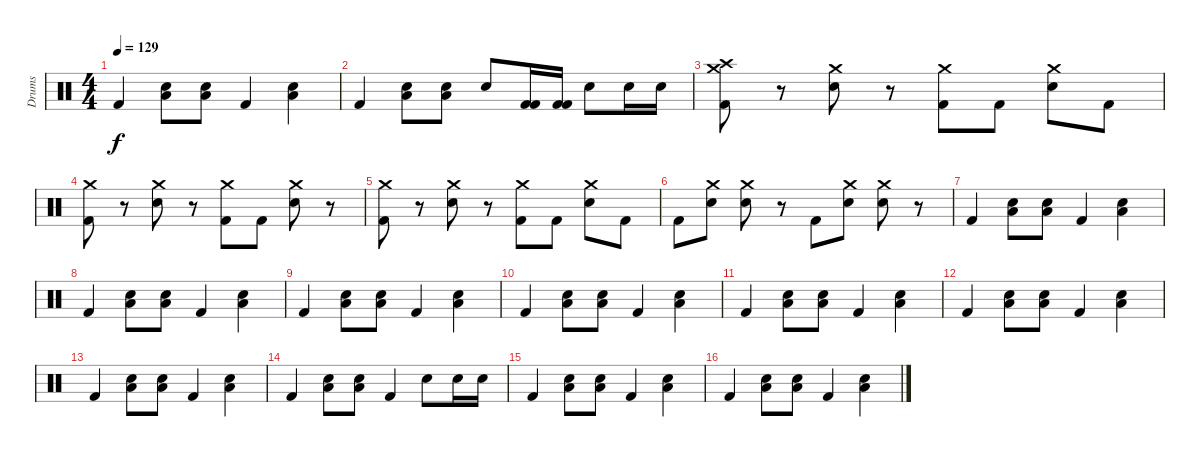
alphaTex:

\track ("Drums" "Drums") {instrument percussion}
\staff {score}
\articulation defaults
\ts (4 4)
\tempo 129
\clef neutral
\ks c "Kick (hit) 2".4{dy f}
("Snare (hit) 2" "Low Floor Tom (hit)").8 ("Snare (hit) 2" "Low Floor Tom (hit)").8 "Kick (hit) 2".4 ("Snare (hit) 2" "Low Floor Tom (hit)").4 |
"Kick (hit) 2".4 ("Snare (hit) 2" "Low Floor Tom (hit)").8 ("Snare (hit) 2" "Low Floor Tom (hit)").8 "Snare (hit) 2".8 ("Kick (hit) 2" "Kick (hit) 2").16 ("Kick (hit) 2" "Kick (hit) 2").16 "Snare (hit) 2".8 "Snare (hit) 2".16 "Snare (hit) 2".16 |
("Crash high (hit)" "Crash medium (hit)" "Kick (hit) 2").8 r.8 ("Crash medium (hit)" "Snare (hit) 2").8 r.8 ("Crash medium (hit)" "Kick (hit) 2").8 "Kick (hit) 2".8 ("Crash medium (hit)" "Snare (hit) 2").8 "Kick (hit) 2".8 |
("Crash medium (hit)" "Kick (hit) 2").8 r.8 ("Crash medium (hit)" "Snare (hit) 2").8 r.8 ("Crash medium (hit)" "Kick (hit) 2").8 "Kick (hit) 2".8 ("Crash medium (hit)" "Snare (hit) 2").8 r.8 |
("Crash medium (hit)" "Kick (hit) 2").8 r.8 ("Crash medium (hit)" "Snare (hit) 2").8 r.8 ("Crash medium (hit)" "Kick (hit) 2").8 "Kick (hit) 2".8 ("Crash medium (hit)" "Snare (hit) 2").8 "Kick (hit) 2".8 |
"Kick (hit) 2".8 ("Crash medium (hit)" "Snare (hit) 2").8 ("Crash medium (hit)" "Snare (hit) 2").8 r.8 "Kick (hit) 2".8 ("Crash medium (hit)" "Snare (hit) 2").8 ("Crash medium (hit)" "Snare (hit) 2").8 r.8 |
"Kick (hit) 2".4 ("Snare (hit) 2" "Low Floor Tom (hit)").8 ("Snare (hit) 2" "Low Floor Tom (hit)").8 "Kick (hit) 2".4 ("Snare (hit) 2" "Low Floor Tom (hit)").4 |
"Kick (hit) 2".4 ("Snare (hit) 2" "Low Floor Tom (hit)").8 ("Snare (hit) 2" "Low Floor Tom (hit)").8 "Kick (hit) 2".4 ("Snare (hit) 2" "Low Floor Tom (hit)").4 |
"Kick (hit) 2".4 ("Snare (hit) 2" "Low Floor Tom (hit)").8 ("Snare (hit) 2" "Low Floor Tom (hit)").8 "Kick (hit) 2".4 ("Snare (hit) 2" "Low Floor Tom (hit)").4 |
"Kick (hit) 2".4 ("Snare (hit) 2" "Low Floor Tom (hit)").8 ("Snare (hit) 2" "Low Floor Tom (hit)").8 "Kick (hit) 2".4 ("Snare (hit) 2" "Low Floor Tom (hit)").4 |
"Kick (hit) 2".4 ("Snare (hit) 2" "Low Floor Tom (hit)").8 ("Snare (hit) 2" "Low Floor Tom (hit)").8 "Kick (hit) 2".4 ("Snare (hit) 2" "Low Floor Tom (hit)").4 |
"Kick (hit) 2".4 ("Snare (hit) 2" "Low Floor Tom (hit)").8 ("Snare (hit) 2" "Low Floor Tom (hit)").8 "Kick (hit) 2".4 ("Snare (hit) 2" "Low Floor Tom (hit)").4 |
"Kick (hit) 2".4 ("Snare (hit) 2" "Low Floor Tom (hit)").8 ("Snare (hit) 2" "Low Floor Tom (hit)").8 "Kick (hit) 2".4 ("Snare (hit) 2" "Low Floor Tom (hit)").4 |
"Kick (hit) 2".4 ("Snare (hit) 2" "Low Floor Tom (hit)").8 ("Snare (hit) 2" "Low Floor Tom (hit)").8 "Kick (hit) 2".4 "Snare (hit) 2".8 "Snare (hit) 2".16 "Snare (hit) 2".16 |
"Kick (hit) 2".4 ("Snare (hit) 2" "Low Floor Tom (hit)").8 ("Snare (hit) 2" "Low Floor Tom (hit)").8 "Kick (hit) 2".4 ("Snare (hit) 2" "Low Floor Tom (hit)").4 |
"Kick (hit) 2".4 ("Snare (hit) 2" "Low Floor Tom (hit)").8 ("Snare (hit) 2" "Low Floor Tom (hit)").8 "Kick (hit) 2".4 ("Snare (hit) 2" "Low Floor Tom (hit)").4
